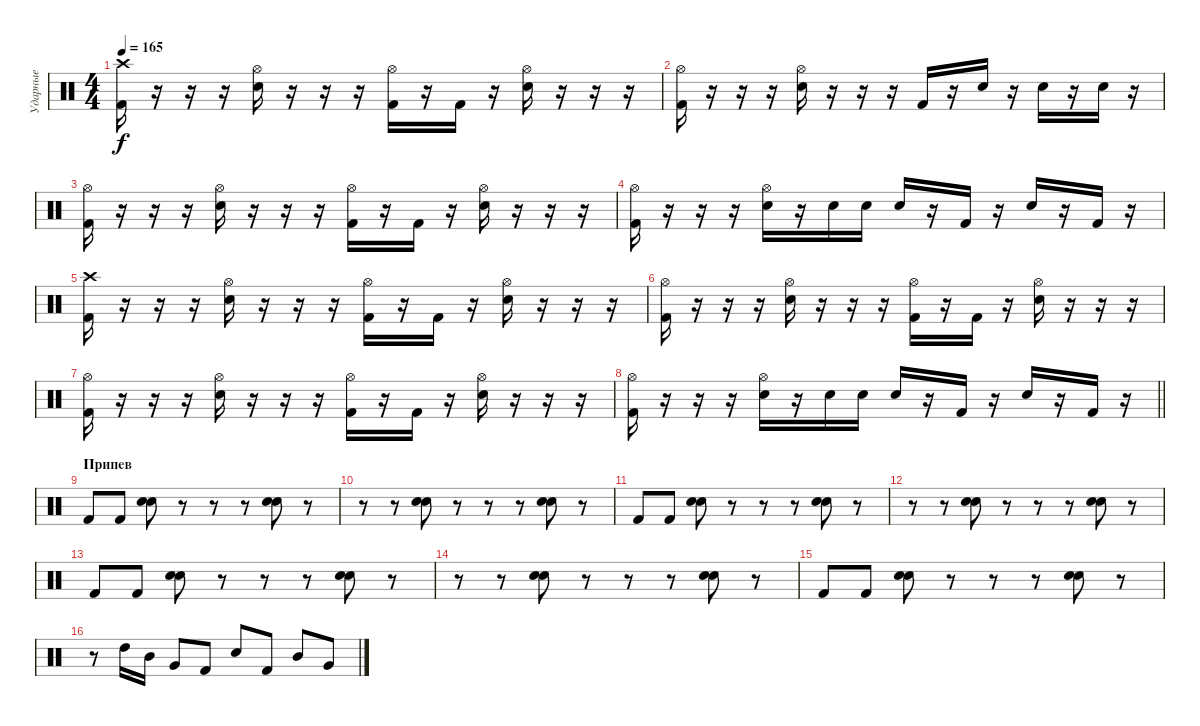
\track ("Ударные" "Ударные") {instrument percussion}
\staff {score}
\articulation defaults
\ts (4 4)
\tempo 165
\clef neutral
\ks c
("Kick (hit) 2" "Crash high (hit)").16{dy f} r.16 r.16 r.16 ("Electric Snare (hit)" "Hi-Hat (open)").16 r.16 r.16 r.16 ("Kick (hit) 2" "Hi-Hat (open)").16 r.16 "Kick (hit) 2".16 r.16 ("Electric Snare (hit)" "Hi-Hat (open)").16 r.16 r.16 r.16 |
("Kick (hit) 2" "Hi-Hat (open)").16 r.16 r.16 r.16 ("Electric Snare (hit)" "Hi-Hat (open)").16 r.16 r.16 r.16 "Kick (hit) 2".16 r.16 "Electric Snare (hit)".16 r.16 "Electric Snare (hit)".16 r.16 "Electric Snare (hit)".16 r.16 |
("Kick (hit) 2" "Hi-Hat (open)").16 r.16 r.16 r.16 ("Electric Snare (hit)" "Hi-Hat (open)").16 r.16 r.16 r.16 ("Kick (hit) 2" "Hi-Hat (open)").16 r.16 "Kick (hit) 2".16 r.16 ("Electric Snare (hit)" "Hi-Hat (open)").16 r.16 r.16 r.16 |
("Kick (hit) 2" "Hi-Hat (open)").16 r.16 r.16 r.16 ("Electric Snare (hit)" "Hi-Hat (open)").16 r.16 "Electric Snare (hit)".16 "Electric Snare (hit)".16 "Electric Snare (hit)".16 r.16 "Kick (hit) 2".16 r.16 "Electric Snare (hit)".16 r.16 "Kick (hit) 2".16 r.16 |
("Kick (hit) 2" "Crash high (hit)").16 r.16 r.16 r.16 ("Electric Snare (hit)" "Hi-Hat (open)").16 r.16 r.16 r.16 ("Kick (hit) 2" "Hi-Hat (open)").16 r.16 "Kick (hit) 2".16 r.16 ("Electric Snare (hit)" "Hi-Hat (open)").16 r.16 r.16 r.16 |
("Kick (hit) 2" "Hi-Hat (open)").16 r.16 r.16 r.16 ("Electric Snare (hit)" "Hi-Hat (open)").16 r.16 r.16 r.16 ("Kick (hit) 2" "Hi-Hat (open)").16 r.16 "Kick (hit) 2".16 r.16 ("Electric Snare (hit)" "Hi-Hat (open)").16 r.16 r.16 r.16 |
("Kick (hit) 2" "Hi-Hat (open)").16 r.16 r.16 r.16 ("Electric Snare (hit)" "Hi-Hat (open)").16 r.16 r.16 r.16 ("Kick (hit) 2" "Hi-Hat (open)").16 r.16 "Kick (hit) 2".16 r.16 ("Electric Snare (hit)" "Hi-Hat (open)").16 r.16 r.16 r.16 |
\barLineRight lightlight
("Kick (hit) 2" "Hi-Hat (open)").16 r.16 r.16 r.16 ("Electric Snare (hit)" "Hi-Hat (open)").16 r.16 "Electric Snare (hit)".16 "Electric Snare (hit)".16 "Electric Snare (hit)".16 r.16 "Kick (hit) 2".16 r.16 "Electric Snare (hit)".16 r.16 "Kick (hit) 2".16 r.16 |
\section ("" "Припев")
"Kick (hit) 2".8 "Kick (hit) 2".8 ("Electric Snare (hit)" "Electric Snare (hit)").8{bu 60} r.8 r.8 r.8 ("Electric Snare (hit)" "Electric Snare (hit)").8{bu 60} r.8 |
r.8 r.8 ("Electric Snare (hit)" "Electric Snare (hit)").8{bu 60} r.8 r.8 r.8 ("Electric Snare (hit)" "Electric Snare (hit)").8{bu 60} r.8 |
"Kick (hit) 2".8 "Kick (hit) 2".8 ("Electric Snare (hit)" "Electric Snare (hit)").8{bu 60} r.8 r.8 r.8 ("Electric Snare (hit)" "Electric Snare (hit)").8{bu 60} r.8 |
r.8 r.8 ("Electric Snare (hit)" "Electric Snare (hit)").8{bu 60} r.8 r.8 r.8 ("Electric Snare (hit)" "Electric Snare (hit)").8{bu 60} r.8 |
"Kick (hit) 2".8 "Kick (hit) 2".8 ("Electric Snare (hit)" "Electric Snare (hit)").8{bu 60} r.8 r.8 r.8 ("Electric Snare (hit)" "Electric Snare (hit)").8{bu 60} r.8 |
r.8 r.8 ("Electric Snare (hit)" "Electric Snare (hit)").8{bu 60} r.8 r.8 r.8 ("Electric Snare (hit)" "Electric Snare (hit)").8{bu 60} r.8 |
"Kick (hit) 2".8 "Kick (hit) 2".8 ("Electric Snare (hit)" "Electric Snare (hit)").8{bu 60} r.8 r.8 r.8 ("Electric Snare (hit)" "Electric Snare (hit)").8{bu 60} r.8 |
r.8 "High Tom (hit)".16 "Mid Tom (hit)".16 "Very Low Tom (hit)".8 "Kick (hit) 2".8 "Electric Snare (hit)".8 "Kick (hit) 2".8 "Mid Tom (hit)".8 "Very Low Tom (hit)".8
